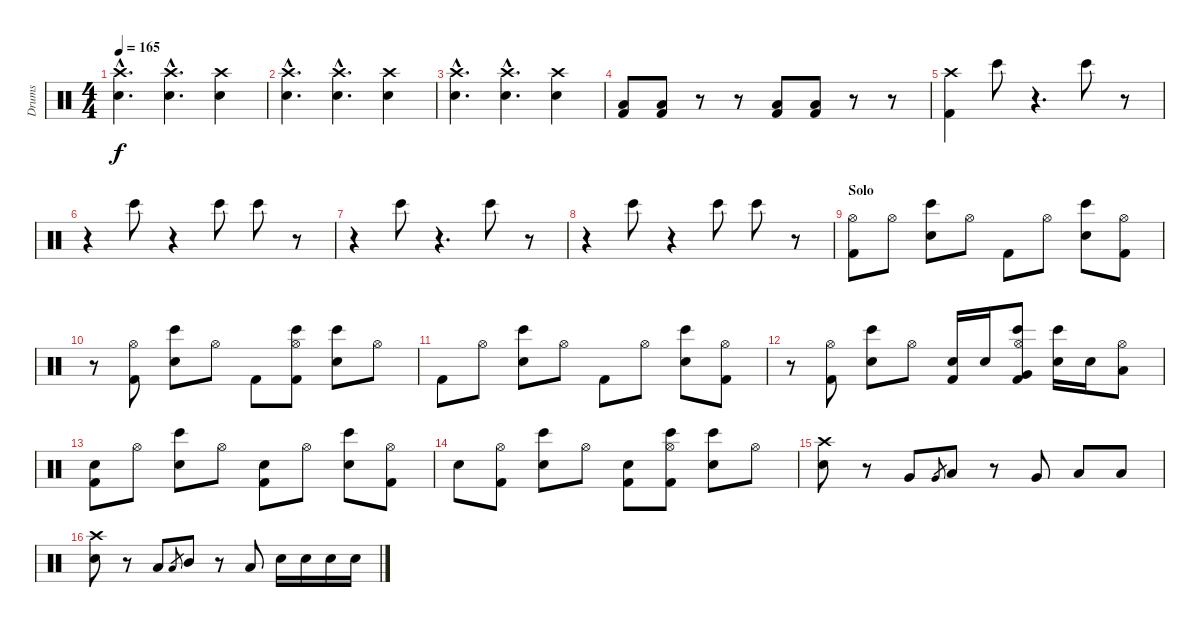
\track ("Drums" "Drums") {instrument percussion}
\staff {score}
\articulation defaults
\ts (4 4)
\tempo 165
\clef neutral
\ks c
("Crash high (hit)"{hac} "Electric Snare (hit)"{hac}).4{d dy f} ("Crash high (hit)"{hac} "Electric Snare (hit)"{hac}).4{d} ("Crash high (hit)" "Electric Snare (hit)").4 |
("Crash high (hit)"{hac} "Electric Snare (hit)"{hac}).4{d} ("Crash high (hit)"{hac} "Electric Snare (hit)"{hac}).4{d} ("Crash high (hit)" "Electric Snare (hit)").4 |
("Crash high (hit)"{hac} "Electric Snare (hit)"{hac}).4{d} ("Crash high (hit)"{hac} "Electric Snare (hit)"{hac}).4{d} ("Crash high (hit)" "Electric Snare (hit)").4 |
("Kick (hit) 2" "Low Floor Tom (hit)").8 ("Kick (hit) 2" "Low Floor Tom (hit)").8 r.8 r.8 ("Kick (hit) 2" "Low Floor Tom (hit)").8 ("Kick (hit) 2" "Low Floor Tom (hit)").8 r.8 r.8 |
("Crash high (hit)" "Kick (hit) 2").4 "Bongo High (hit)".8 r.4{d} "Bongo High (hit)".8 r.8 |
r.4 "Bongo High (hit)".8 r.4 "Bongo High (hit)".8 "Bongo High (hit)".8 r.8 |
r.4 "Bongo High (hit)".8 r.4{d} "Bongo High (hit)".8 r.8 |
r.4 "Bongo High (hit)".8 r.4 "Bongo High (hit)".8 "Bongo High (hit)".8 r.8 |
\section ("" "Solo")
("Hi-Hat (open)" "Kick (hit) 2").8 "Hi-Hat (open)".8 ("Electric Snare (hit)" "Bongo High (hit)").8 "Hi-Hat (open)".8 "Kick (hit) 2".8 "Hi-Hat (open)".8 ("Electric Snare (hit)" "Bongo High (hit)").8 ("Hi-Hat (open)" "Kick (hit) 2").8 |
r.8 ("Hi-Hat (open)" "Kick (hit) 2").8 ("Electric Snare (hit)" "Bongo High (hit)").8 "Hi-Hat (open)".8 "Kick (hit) 2".8 ("Hi-Hat (open)" "Kick (hit) 2" "Bongo High (hit)").8 ("Electric Snare (hit)" "Bongo High (hit)").8 "Hi-Hat (open)".8 |
"Kick (hit) 2".8 "Hi-Hat (open)".8 ("Electric Snare (hit)" "Bongo High (hit)").8 "Hi-Hat (open)".8 "Kick (hit) 2".8 "Hi-Hat (open)".8 ("Electric Snare (hit)" "Bongo High (hit)").8 ("Hi-Hat (open)" "Kick (hit) 2").8 |
r.8 ("Hi-Hat (open)" "Kick (hit) 2").8 ("Electric Snare (hit)" "Bongo High (hit)").8 "Hi-Hat (open)".8 ("Kick (hit) 2" "Electric Snare (hit)").16 "Electric Snare (hit)".16 ("Hi-Hat (open)" "Kick (hit) 2" "Very Low Tom (hit)" "Bongo High (hit)").8 ("Electric Snare (hit)" "Bongo High (hit)").16 "Electric Snare (hit)".16 ("Hi-Hat (open)" "Low Floor Tom (hit)").8 |
("Kick (hit) 2" "Electric Snare (hit)").8 "Hi-Hat (open)".8 ("Electric Snare (hit)" "Bongo High (hit)").8 "Hi-Hat (open)".8 ("Kick (hit) 2" "Electric Snare (hit)").8 "Hi-Hat (open)".8 ("Electric Snare (hit)" "Bongo High (hit)").8 ("Hi-Hat (open)" "Kick (hit) 2").8 |
"Electric Snare (hit)".8 ("Hi-Hat (open)" "Kick (hit) 2").8 ("Electric Snare (hit)" "Bongo High (hit)").8 "Hi-Hat (open)".8 ("Kick (hit) 2" "Electric Snare (hit)").8 ("Hi-Hat (open)" "Kick (hit) 2" "Bongo High (hit)").8 ("Electric Snare (hit)" "Bongo High (hit)").8 "Hi-Hat (open)".8 |
("Crash high (hit)" "Electric Snare (hit)").8 r.8 "Very Low Tom (hit)".8 "Very Low Tom (hit)".8{gr} "Low Tom (hit)".8 r.8 "Very Low Tom (hit)".8 "Low Floor Tom (hit)".8 "Low Floor Tom (hit)".8 |
("Crash high (hit)" "Electric Snare (hit)").8 r.8 "Low Tom (hit)".8 "Low Tom (hit)".8{gr} "Mid Tom (hit)".8 r.8 "Low Tom (hit)".8 "Electric Snare (hit)".16 "Electric Snare (hit)".16 "Electric Snare (hit)".16 "Electric Snare (hit)".16
